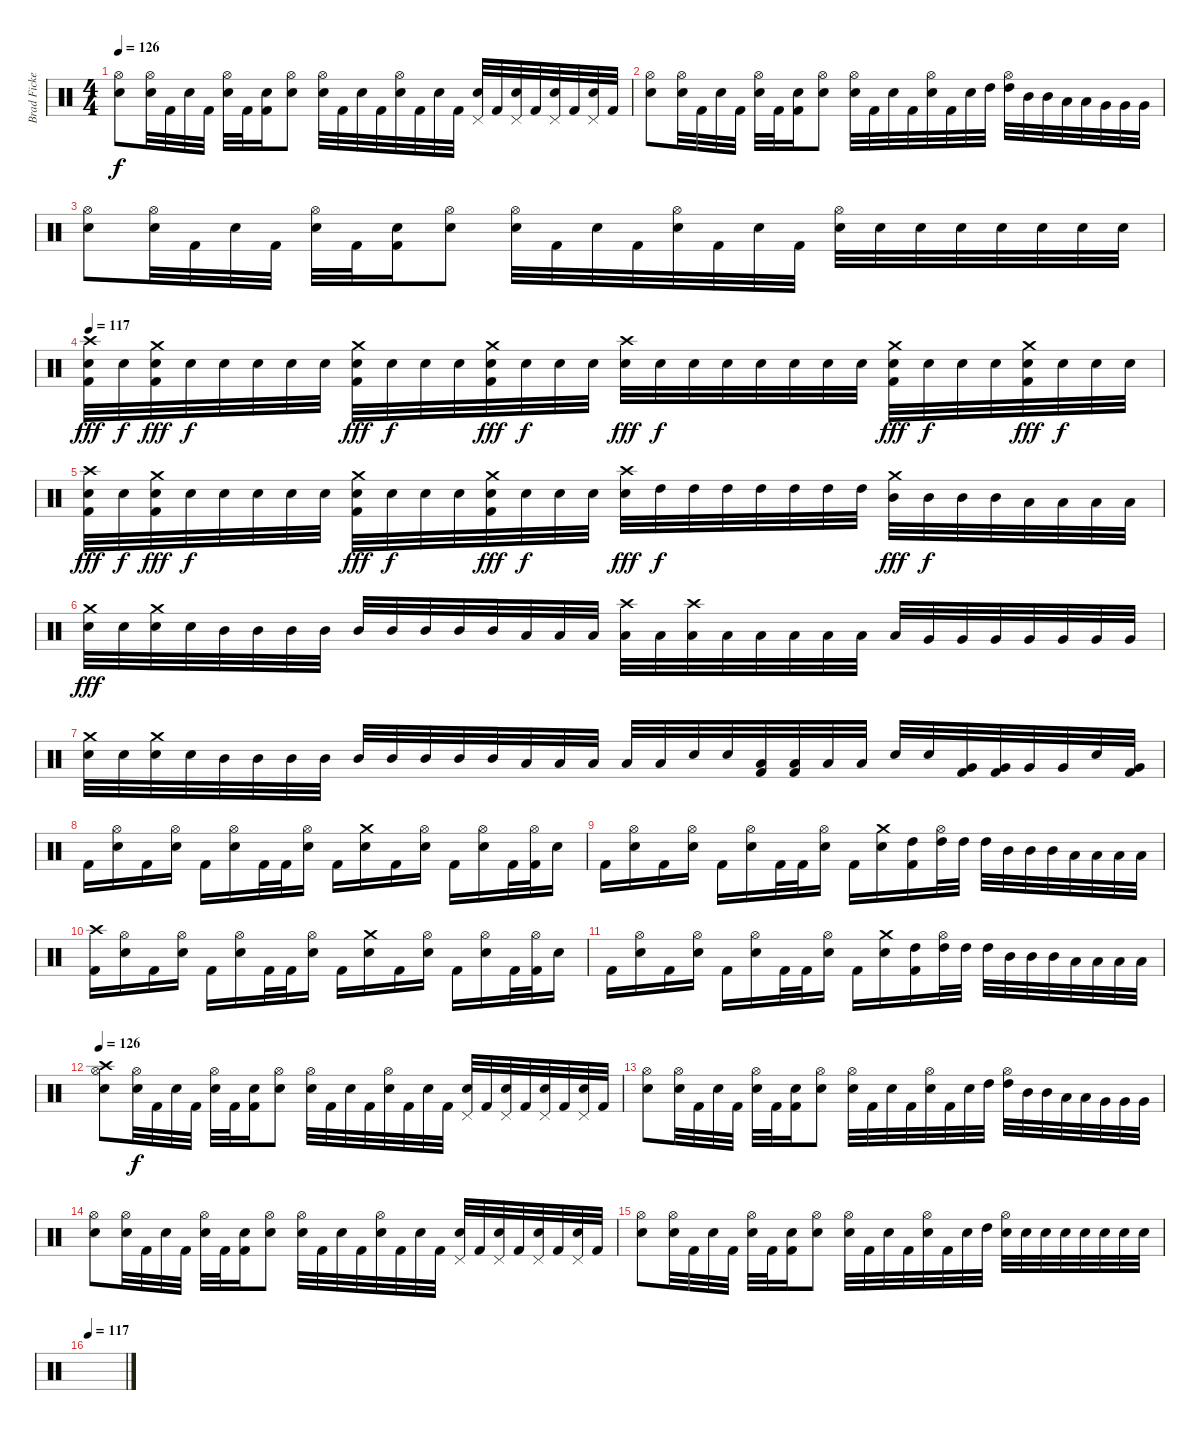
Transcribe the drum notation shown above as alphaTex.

\track ("Brad Fickeisen" "Brad Ficke") {instrument percussion}
\staff {score}
\articulation defaults
\ts (4 4)
\tempo 126
\clef neutral
\ks c
("Hi-Hat (open)" "Electric Snare (hit)").8{dy f} ("Hi-Hat (open)" "Electric Snare (hit)").32 "Kick (hit) 2".32 "Electric Snare (hit)".32 "Kick (hit) 2".32 ("Hi-Hat (open)" "Electric Snare (hit)").32 "Kick (hit) 2".32 ("Electric Snare (hit)" "Kick (hit) 2").16 ("Hi-Hat (open)" "Electric Snare (hit)").8 ("Hi-Hat (open)" "Electric Snare (hit)").32 "Kick (hit) 2".32 "Electric Snare (hit)".32 "Kick (hit) 2".32 ("Hi-Hat (open)" "Electric Snare (hit)").32 "Kick (hit) 2".32 "Electric Snare (hit)".32 "Kick (hit) 2".32 ("Pedal Hi-Hat (hit)" "Electric Snare (hit)").32 "Kick (hit) 2".32 ("Pedal Hi-Hat (hit)" "Electric Snare (hit)").32 "Kick (hit) 2".32 ("Pedal Hi-Hat (hit)" "Electric Snare (hit)").32 "Kick (hit) 2".32 ("Pedal Hi-Hat (hit)" "Electric Snare (hit)").32 "Kick (hit) 2".32 |
("Hi-Hat (open)" "Electric Snare (hit)").8 ("Hi-Hat (open)" "Electric Snare (hit)").32 "Kick (hit) 2".32 "Electric Snare (hit)".32 "Kick (hit) 2".32 ("Hi-Hat (open)" "Electric Snare (hit)").32 "Kick (hit) 2".32 ("Electric Snare (hit)" "Kick (hit) 2").16 ("Hi-Hat (open)" "Electric Snare (hit)").8 ("Hi-Hat (open)" "Electric Snare (hit)").32 "Kick (hit) 2".32 "Electric Snare (hit)".32 "Kick (hit) 2".32 ("Hi-Hat (open)" "Electric Snare (hit)").32 "Kick (hit) 2".32 "Electric Snare (hit)".32 "High Tom (hit)".32 ("Hi-Hat (open)" "High Tom (hit)").32 "Mid Tom (hit)".32 "Mid Tom (hit)".32 "Low Tom (hit)".32 "Low Tom (hit)".32 "Very Low Tom (hit)".32 "Very Low Tom (hit)".32 "Very Low Tom (hit)".32 |
("Hi-Hat (open)" "Electric Snare (hit)").8 ("Hi-Hat (open)" "Electric Snare (hit)").32 "Kick (hit) 2".32 "Electric Snare (hit)".32 "Kick (hit) 2".32 ("Hi-Hat (open)" "Electric Snare (hit)").32 "Kick (hit) 2".32 ("Electric Snare (hit)" "Kick (hit) 2").16 ("Hi-Hat (open)" "Electric Snare (hit)").8 ("Hi-Hat (open)" "Electric Snare (hit)").32 "Kick (hit) 2".32 "Electric Snare (hit)".32 "Kick (hit) 2".32 ("Hi-Hat (open)" "Electric Snare (hit)").32 "Kick (hit) 2".32 "Electric Snare (hit)".32 "Kick (hit) 2".32 ("Hi-Hat (open)" "Electric Snare (hit)").32 "Electric Snare (hit)".32 "Electric Snare (hit)".32 "Electric Snare (hit)".32 "Electric Snare (hit)".32 "Electric Snare (hit)".32 "Electric Snare (hit)".32 "Electric Snare (hit)".32 |
\tempo 117
("Crash high (hit)" "Electric Snare (hit)" "Kick (hit) 2").32{dy fff} "Electric Snare (hit)".32{dy f} ("Crash medium (hit)" "Electric Snare (hit)" "Kick (hit) 2").32{dy fff} "Electric Snare (hit)".32{dy f} "Electric Snare (hit)".32 "Electric Snare (hit)".32 "Electric Snare (hit)".32 "Electric Snare (hit)".32 ("Crash medium (hit)" "Electric Snare (hit)" "Kick (hit) 2").32{dy fff} "Electric Snare (hit)".32{dy f} "Electric Snare (hit)".32 "Electric Snare (hit)".32 ("Crash medium (hit)" "Electric Snare (hit)" "Kick (hit) 2").32{dy fff} "Electric Snare (hit)".32{dy f} "Electric Snare (hit)".32 "Electric Snare (hit)".32 ("Crash high (hit)" "Electric Snare (hit)").32{dy fff} "Electric Snare (hit)".32{dy f} "Electric Snare (hit)".32 "Electric Snare (hit)".32 "Electric Snare (hit)".32 "Electric Snare (hit)".32 "Electric Snare (hit)".32 "Electric Snare (hit)".32 ("Crash medium (hit)" "Electric Snare (hit)" "Kick (hit) 2").32{dy fff} "Electric Snare (hit)".32{dy f} "Electric Snare (hit)".32 "Electric Snare (hit)".32 ("Crash medium (hit)" "Electric Snare (hit)" "Kick (hit) 2").32{dy fff} "Electric Snare (hit)".32{dy f} "Electric Snare (hit)".32 "Electric Snare (hit)".32 |
("Crash high (hit)" "Electric Snare (hit)" "Kick (hit) 2").32{dy fff} "Electric Snare (hit)".32{dy f} ("Crash medium (hit)" "Electric Snare (hit)" "Kick (hit) 2").32{dy fff} "Electric Snare (hit)".32{dy f} "Electric Snare (hit)".32 "Electric Snare (hit)".32 "Electric Snare (hit)".32 "Electric Snare (hit)".32 ("Crash medium (hit)" "Electric Snare (hit)" "Kick (hit) 2").32{dy fff} "Electric Snare (hit)".32{dy f} "Electric Snare (hit)".32 "Electric Snare (hit)".32 ("Crash medium (hit)" "Electric Snare (hit)" "Kick (hit) 2").32{dy fff} "Electric Snare (hit)".32{dy f} "Electric Snare (hit)".32 "Electric Snare (hit)".32 ("Crash high (hit)" "Electric Snare (hit)").32{dy fff} "High Tom (hit)".32{dy f} "High Tom (hit)".32 "High Tom (hit)".32 "High Tom (hit)".32 "High Tom (hit)".32 "High Tom (hit)".32 "High Tom (hit)".32 ("Crash medium (hit)" "Mid Tom (hit)").32{dy fff} "Mid Tom (hit)".32{dy f} "Mid Tom (hit)".32 "Mid Tom (hit)".32 "Low Tom (hit)".32 "Low Tom (hit)".32 "Low Tom (hit)".32 "Low Tom (hit)".32 |
("Crash medium (hit)" "Electric Snare (hit)").32{dy fff} "Electric Snare (hit)".32 ("Crash medium (hit)" "Electric Snare (hit)").32 "Electric Snare (hit)".32 "Mid Tom (hit)".32 "Mid Tom (hit)".32 "Mid Tom (hit)".32 "Mid Tom (hit)".32 "Mid Tom (hit)".32 "Mid Tom (hit)".32 "Mid Tom (hit)".32 "Mid Tom (hit)".32 "Mid Tom (hit)".32 "Low Tom (hit)".32 "Low Tom (hit)".32 "Low Tom (hit)".32 ("Crash high (hit)" "Low Tom (hit)").32 "Low Tom (hit)".32 ("Crash high (hit)" "Low Tom (hit)").32 "Low Tom (hit)".32 "Low Tom (hit)".32 "Low Tom (hit)".32 "Low Tom (hit)".32 "Low Tom (hit)".32 "Low Tom (hit)".32 "Very Low Tom (hit)".32 "Very Low Tom (hit)".32 "Very Low Tom (hit)".32 "Very Low Tom (hit)".32 "Very Low Tom (hit)".32 "Very Low Tom (hit)".32 "Very Low Tom (hit)".32 |
("Crash medium (hit)" "Electric Snare (hit)").32 "Electric Snare (hit)".32 ("Crash medium (hit)" "Electric Snare (hit)").32 "Electric Snare (hit)".32 "Mid Tom (hit)".32 "Mid Tom (hit)".32 "Mid Tom (hit)".32 "Mid Tom (hit)".32 "Mid Tom (hit)".32 "Mid Tom (hit)".32 "Mid Tom (hit)".32 "Mid Tom (hit)".32 "Mid Tom (hit)".32 "Low Tom (hit)".32 "Low Tom (hit)".32 "Low Tom (hit)".32 "Low Tom (hit)".32 "Low Tom (hit)".32 "Electric Snare (hit)".32 "Electric Snare (hit)".32 ("Low Tom (hit)" "Kick (hit) 2").32 ("Low Tom (hit)" "Kick (hit) 2").32 "Low Tom (hit)".32 "Low Tom (hit)".32 "Electric Snare (hit)".32 "Electric Snare (hit)".32 ("Very Low Tom (hit)" "Kick (hit) 2").32 ("Very Low Tom (hit)" "Kick (hit) 2").32 "Very Low Tom (hit)".32 "Very Low Tom (hit)".32 "Electric Snare (hit)".32 ("Very Low Tom (hit)" "Kick (hit) 2").32 |
"Kick (hit) 2".16 ("Hi-Hat (open)" "Electric Snare (hit)").16 "Kick (hit) 2".16 ("Hi-Hat (open)" "Electric Snare (hit)").16 "Kick (hit) 2".16 ("Hi-Hat (open)" "Electric Snare (hit)").16 "Kick (hit) 2".32 "Kick (hit) 2".32 ("Hi-Hat (open)" "Electric Snare (hit)").16 "Kick (hit) 2".16 ("Crash medium (hit)" "Electric Snare (hit)").16 "Kick (hit) 2".16 ("Hi-Hat (open)" "Electric Snare (hit)").16 "Kick (hit) 2".16 ("Hi-Hat (open)" "Electric Snare (hit)").16 "Kick (hit) 2".32 ("Hi-Hat (open)" "Kick (hit) 2").32 "Electric Snare (hit)".16 |
"Kick (hit) 2".16 ("Hi-Hat (open)" "Electric Snare (hit)").16 "Kick (hit) 2".16 ("Hi-Hat (open)" "Electric Snare (hit)").16 "Kick (hit) 2".16 ("Hi-Hat (open)" "Electric Snare (hit)").16 "Kick (hit) 2".32 "Kick (hit) 2".32 ("Hi-Hat (open)" "Electric Snare (hit)").16 "Kick (hit) 2".16 ("Crash medium (hit)" "Electric Snare (hit)").16 ("High Tom (hit)" "Kick (hit) 2").16 ("Hi-Hat (open)" "High Tom (hit)").32 "High Tom (hit)".32 "High Tom (hit)".32 "Mid Tom (hit)".32 "Mid Tom (hit)".32 "Mid Tom (hit)".32 "Low Tom (hit)".32 "Low Tom (hit)".32 "Low Tom (hit)".32 "Low Tom (hit)".32 |
("Crash high (hit)" "Kick (hit) 2").16 ("Hi-Hat (open)" "Electric Snare (hit)").16 "Kick (hit) 2".16 ("Hi-Hat (open)" "Electric Snare (hit)").16 "Kick (hit) 2".16 ("Hi-Hat (open)" "Electric Snare (hit)").16 "Kick (hit) 2".32 "Kick (hit) 2".32 ("Hi-Hat (open)" "Electric Snare (hit)").16 "Kick (hit) 2".16 ("Crash medium (hit)" "Electric Snare (hit)").16 "Kick (hit) 2".16 ("Hi-Hat (open)" "Electric Snare (hit)").16 "Kick (hit) 2".16 ("Hi-Hat (open)" "Electric Snare (hit)").16 "Kick (hit) 2".32 ("Hi-Hat (open)" "Kick (hit) 2").32 "Electric Snare (hit)".16 |
"Kick (hit) 2".16 ("Hi-Hat (open)" "Electric Snare (hit)").16 "Kick (hit) 2".16 ("Hi-Hat (open)" "Electric Snare (hit)").16 "Kick (hit) 2".16 ("Hi-Hat (open)" "Electric Snare (hit)").16 "Kick (hit) 2".32 "Kick (hit) 2".32 ("Hi-Hat (open)" "Electric Snare (hit)").16 "Kick (hit) 2".16 ("Crash medium (hit)" "Electric Snare (hit)").16 ("High Tom (hit)" "Kick (hit) 2").16 ("Hi-Hat (open)" "High Tom (hit)").32 "High Tom (hit)".32 "High Tom (hit)".32 "Mid Tom (hit)".32 "Mid Tom (hit)".32 "Mid Tom (hit)".32 "Low Tom (hit)".32 "Low Tom (hit)".32 "Low Tom (hit)".32 "Low Tom (hit)".32 |
\tempo 126
("Hi-Hat (open)" "Crash high (hit)" "Electric Snare (hit)").8 ("Hi-Hat (open)" "Electric Snare (hit)").32{dy f} "Kick (hit) 2".32 "Electric Snare (hit)".32 "Kick (hit) 2".32 ("Hi-Hat (open)" "Electric Snare (hit)").32 "Kick (hit) 2".32 ("Electric Snare (hit)" "Kick (hit) 2").16 ("Hi-Hat (open)" "Electric Snare (hit)").8 ("Hi-Hat (open)" "Electric Snare (hit)").32 "Kick (hit) 2".32 "Electric Snare (hit)".32 "Kick (hit) 2".32 ("Hi-Hat (open)" "Electric Snare (hit)").32 "Kick (hit) 2".32 "Electric Snare (hit)".32 "Kick (hit) 2".32 ("Pedal Hi-Hat (hit)" "Electric Snare (hit)").32 "Kick (hit) 2".32 ("Pedal Hi-Hat (hit)" "Electric Snare (hit)").32 "Kick (hit) 2".32 ("Pedal Hi-Hat (hit)" "Electric Snare (hit)").32 "Kick (hit) 2".32 ("Pedal Hi-Hat (hit)" "Electric Snare (hit)").32 "Kick (hit) 2".32 |
("Hi-Hat (open)" "Electric Snare (hit)").8 ("Hi-Hat (open)" "Electric Snare (hit)").32 "Kick (hit) 2".32 "Electric Snare (hit)".32 "Kick (hit) 2".32 ("Hi-Hat (open)" "Electric Snare (hit)").32 "Kick (hit) 2".32 ("Electric Snare (hit)" "Kick (hit) 2").16 ("Hi-Hat (open)" "Electric Snare (hit)").8 ("Hi-Hat (open)" "Electric Snare (hit)").32 "Kick (hit) 2".32 "Electric Snare (hit)".32 "Kick (hit) 2".32 ("Hi-Hat (open)" "Electric Snare (hit)").32 "Kick (hit) 2".32 "Electric Snare (hit)".32 "High Tom (hit)".32 ("Hi-Hat (open)" "High Tom (hit)").32 "Mid Tom (hit)".32 "Mid Tom (hit)".32 "Low Tom (hit)".32 "Low Tom (hit)".32 "Very Low Tom (hit)".32 "Very Low Tom (hit)".32 "Very Low Tom (hit)".32 |
("Hi-Hat (open)" "Electric Snare (hit)").8 ("Hi-Hat (open)" "Electric Snare (hit)").32 "Kick (hit) 2".32 "Electric Snare (hit)".32 "Kick (hit) 2".32 ("Hi-Hat (open)" "Electric Snare (hit)").32 "Kick (hit) 2".32 ("Electric Snare (hit)" "Kick (hit) 2").16 ("Hi-Hat (open)" "Electric Snare (hit)").8 ("Hi-Hat (open)" "Electric Snare (hit)").32 "Kick (hit) 2".32 "Electric Snare (hit)".32 "Kick (hit) 2".32 ("Hi-Hat (open)" "Electric Snare (hit)").32 "Kick (hit) 2".32 "Electric Snare (hit)".32 "Kick (hit) 2".32 ("Pedal Hi-Hat (hit)" "Electric Snare (hit)").32 "Kick (hit) 2".32 ("Pedal Hi-Hat (hit)" "Electric Snare (hit)").32 "Kick (hit) 2".32 ("Pedal Hi-Hat (hit)" "Electric Snare (hit)").32 "Kick (hit) 2".32 ("Pedal Hi-Hat (hit)" "Electric Snare (hit)").32 "Kick (hit) 2".32 |
("Hi-Hat (open)" "Electric Snare (hit)").8 ("Hi-Hat (open)" "Electric Snare (hit)").32 "Kick (hit) 2".32 "Electric Snare (hit)".32 "Kick (hit) 2".32 ("Hi-Hat (open)" "Electric Snare (hit)").32 "Kick (hit) 2".32 ("Electric Snare (hit)" "Kick (hit) 2").16 ("Hi-Hat (open)" "Electric Snare (hit)").8 ("Hi-Hat (open)" "Electric Snare (hit)").32 "Kick (hit) 2".32 "Electric Snare (hit)".32 "Kick (hit) 2".32 ("Hi-Hat (open)" "Electric Snare (hit)").32 "Kick (hit) 2".32 "Electric Snare (hit)".32 "High Tom (hit)".32 ("Hi-Hat (open)" "Electric Snare (hit)").32 "Electric Snare (hit)".32 "Electric Snare (hit)".32 "Electric Snare (hit)".32 "Electric Snare (hit)".32 "Electric Snare (hit)".32 "Electric Snare (hit)".32 "Electric Snare (hit)".32 |
\tempo 117
